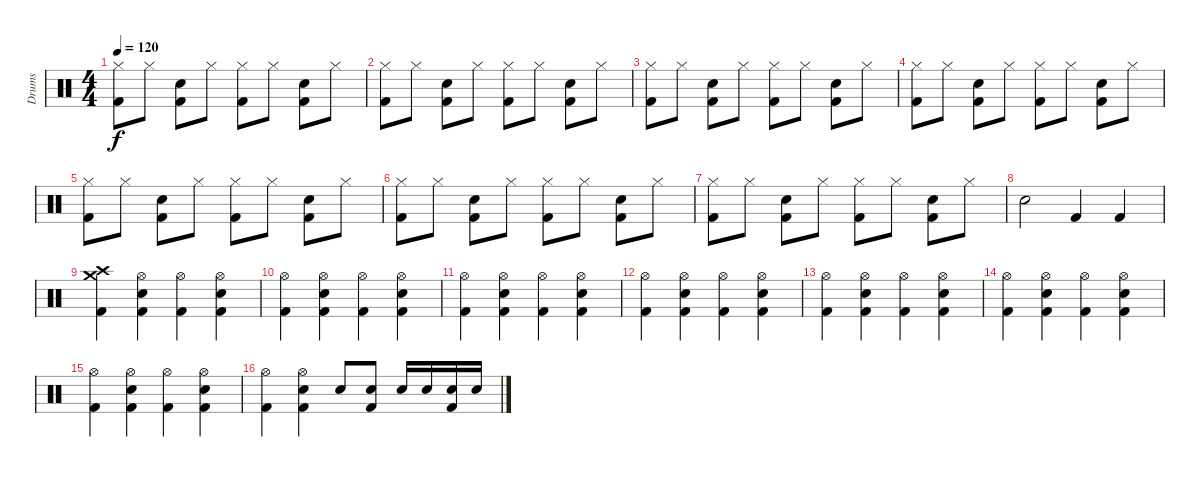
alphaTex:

\track ("Drums" "Drums") {instrument percussion}
\staff {score}
\articulation defaults
\ts (4 4)
\tempo 120
\clef neutral
\ks c
("Hi-Hat (closed)" "Kick (hit) 2").8{dy f} "Hi-Hat (closed)".8 ("Electric Snare (hit)" "Kick (hit) 2").8 "Hi-Hat (closed)".8 ("Hi-Hat (closed)" "Kick (hit) 2").8 "Hi-Hat (closed)".8 ("Electric Snare (hit)" "Kick (hit) 2").8 "Hi-Hat (closed)".8 |
("Hi-Hat (closed)" "Kick (hit) 2").8 "Hi-Hat (closed)".8 ("Electric Snare (hit)" "Kick (hit) 2").8 "Hi-Hat (closed)".8 ("Hi-Hat (closed)" "Kick (hit) 2").8 "Hi-Hat (closed)".8 ("Electric Snare (hit)" "Kick (hit) 2").8 "Hi-Hat (closed)".8 |
("Hi-Hat (closed)" "Kick (hit) 2").8 "Hi-Hat (closed)".8 ("Electric Snare (hit)" "Kick (hit) 2").8 "Hi-Hat (closed)".8 ("Hi-Hat (closed)" "Kick (hit) 2").8 "Hi-Hat (closed)".8 ("Electric Snare (hit)" "Kick (hit) 2").8 "Hi-Hat (closed)".8 |
("Hi-Hat (closed)" "Kick (hit) 2").8 "Hi-Hat (closed)".8 ("Electric Snare (hit)" "Kick (hit) 2").8 "Hi-Hat (closed)".8 ("Hi-Hat (closed)" "Kick (hit) 2").8 "Hi-Hat (closed)".8 ("Electric Snare (hit)" "Kick (hit) 2").8 "Hi-Hat (closed)".8 |
("Hi-Hat (closed)" "Kick (hit) 2").8 "Hi-Hat (closed)".8 ("Electric Snare (hit)" "Kick (hit) 2").8 "Hi-Hat (closed)".8 ("Hi-Hat (closed)" "Kick (hit) 2").8 "Hi-Hat (closed)".8 ("Electric Snare (hit)" "Kick (hit) 2").8 "Hi-Hat (closed)".8 |
("Hi-Hat (closed)" "Kick (hit) 2").8 "Hi-Hat (closed)".8 ("Electric Snare (hit)" "Kick (hit) 2").8 "Hi-Hat (closed)".8 ("Hi-Hat (closed)" "Kick (hit) 2").8 "Hi-Hat (closed)".8 ("Electric Snare (hit)" "Kick (hit) 2").8 "Hi-Hat (closed)".8 |
("Hi-Hat (closed)" "Kick (hit) 2").8 "Hi-Hat (closed)".8 ("Electric Snare (hit)" "Kick (hit) 2").8 "Hi-Hat (closed)".8 ("Hi-Hat (closed)" "Kick (hit) 2").8 "Hi-Hat (closed)".8 ("Electric Snare (hit)" "Kick (hit) 2").8 "Hi-Hat (closed)".8 |
"Electric Snare (hit)".2 "Kick (hit) 2".4 "Kick (hit) 2".4 |
("Crash medium (hit)" "Crash high (hit)" "Kick (hit) 2").4 ("Hi-Hat (open)" "Electric Snare (hit)" "Kick (hit) 2").4 ("Hi-Hat (open)" "Kick (hit) 2").4 ("Hi-Hat (open)" "Electric Snare (hit)" "Kick (hit) 2").4 |
("Hi-Hat (open)" "Kick (hit) 2").4 ("Hi-Hat (open)" "Electric Snare (hit)" "Kick (hit) 2").4 ("Hi-Hat (open)" "Kick (hit) 2").4 ("Hi-Hat (open)" "Electric Snare (hit)" "Kick (hit) 2").4 |
("Hi-Hat (open)" "Kick (hit) 2").4 ("Hi-Hat (open)" "Electric Snare (hit)" "Kick (hit) 2").4 ("Hi-Hat (open)" "Kick (hit) 2").4 ("Hi-Hat (open)" "Electric Snare (hit)" "Kick (hit) 2").4 |
("Hi-Hat (open)" "Kick (hit) 2").4 ("Hi-Hat (open)" "Electric Snare (hit)" "Kick (hit) 2").4 ("Hi-Hat (open)" "Kick (hit) 2").4 ("Hi-Hat (open)" "Electric Snare (hit)" "Kick (hit) 2").4 |
("Hi-Hat (open)" "Kick (hit) 2").4 ("Hi-Hat (open)" "Electric Snare (hit)" "Kick (hit) 2").4 ("Hi-Hat (open)" "Kick (hit) 2").4 ("Hi-Hat (open)" "Electric Snare (hit)" "Kick (hit) 2").4 |
("Hi-Hat (open)" "Kick (hit) 2").4 ("Hi-Hat (open)" "Electric Snare (hit)" "Kick (hit) 2").4 ("Hi-Hat (open)" "Kick (hit) 2").4 ("Hi-Hat (open)" "Electric Snare (hit)" "Kick (hit) 2").4 |
("Hi-Hat (open)" "Kick (hit) 2").4 ("Hi-Hat (open)" "Electric Snare (hit)" "Kick (hit) 2").4 ("Hi-Hat (open)" "Kick (hit) 2").4 ("Hi-Hat (open)" "Electric Snare (hit)" "Kick (hit) 2").4 |
("Hi-Hat (open)" "Kick (hit) 2").4 ("Hi-Hat (open)" "Electric Snare (hit)" "Kick (hit) 2").4 "Electric Snare (hit)".8 ("Kick (hit) 2" "Electric Snare (hit)").8 "Electric Snare (hit)".16 "Electric Snare (hit)".16 ("Kick (hit) 2" "Electric Snare (hit)").16 "Electric Snare (hit)".16
